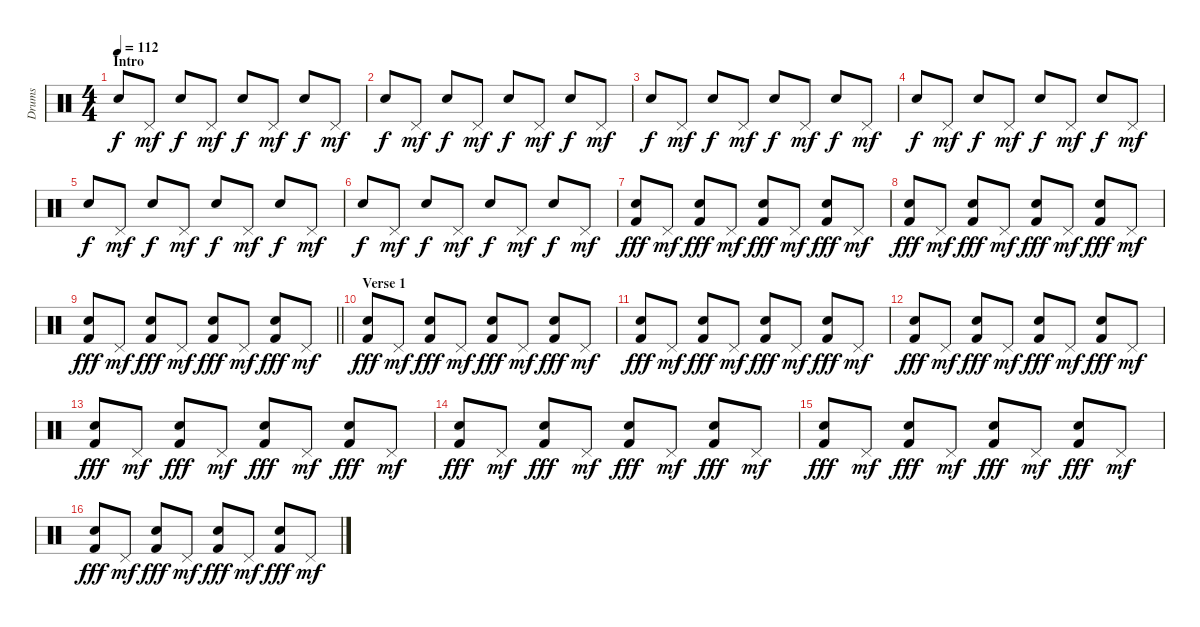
\track ("Drums" "Drums") {instrument percussion}
\staff {score}
\articulation defaults
\ts (4 4)
\section ("" "Intro")
\tempo 112
\clef neutral
\ks c "Electric Snare (hit)".8{dy f} "Pedal Hi-Hat (hit)".8{dy mf} "Electric Snare (hit)".8{dy f} "Pedal Hi-Hat (hit)".8{dy mf} "Electric Snare (hit)".8{dy f} "Pedal Hi-Hat (hit)".8{dy mf} "Electric Snare (hit)".8{dy f} "Pedal Hi-Hat (hit)".8{dy mf}
|
"Electric Snare (hit)".8{dy f} "Pedal Hi-Hat (hit)".8{dy mf} "Electric Snare (hit)".8{dy f} "Pedal Hi-Hat (hit)".8{dy mf} "Electric Snare (hit)".8{dy f} "Pedal Hi-Hat (hit)".8{dy mf} "Electric Snare (hit)".8{dy f} "Pedal Hi-Hat (hit)".8{dy mf} |
"Electric Snare (hit)".8{dy f} "Pedal Hi-Hat (hit)".8{dy mf} "Electric Snare (hit)".8{dy f} "Pedal Hi-Hat (hit)".8{dy mf} "Electric Snare (hit)".8{dy f} "Pedal Hi-Hat (hit)".8{dy mf} "Electric Snare (hit)".8{dy f} "Pedal Hi-Hat (hit)".8{dy mf} |
"Electric Snare (hit)".8{dy f} "Pedal Hi-Hat (hit)".8{dy mf} "Electric Snare (hit)".8{dy f} "Pedal Hi-Hat (hit)".8{dy mf} "Electric Snare (hit)".8{dy f} "Pedal Hi-Hat (hit)".8{dy mf} "Electric Snare (hit)".8{dy f} "Pedal Hi-Hat (hit)".8{dy mf} |
"Electric Snare (hit)".8{dy f} "Pedal Hi-Hat (hit)".8{dy mf} "Electric Snare (hit)".8{dy f} "Pedal Hi-Hat (hit)".8{dy mf} "Electric Snare (hit)".8{dy f} "Pedal Hi-Hat (hit)".8{dy mf} "Electric Snare (hit)".8{dy f} "Pedal Hi-Hat (hit)".8{dy mf} |
"Electric Snare (hit)".8{dy f} "Pedal Hi-Hat (hit)".8{dy mf} "Electric Snare (hit)".8{dy f} "Pedal Hi-Hat (hit)".8{dy mf} "Electric Snare (hit)".8{dy f} "Pedal Hi-Hat (hit)".8{dy mf} "Electric Snare (hit)".8{dy f} "Pedal Hi-Hat (hit)".8{dy mf} |
("Electric Snare (hit)" "Kick (hit) 2").8{dy fff} "Pedal Hi-Hat (hit)".8{dy mf} ("Electric Snare (hit)" "Kick (hit) 2").8{dy fff} "Pedal Hi-Hat (hit)".8{dy mf} ("Electric Snare (hit)" "Kick (hit) 2").8{dy fff} "Pedal Hi-Hat (hit)".8{dy mf} ("Electric Snare (hit)" "Kick (hit) 2").8{dy fff} "Pedal Hi-Hat (hit)".8{dy mf} |
("Electric Snare (hit)" "Kick (hit) 2").8{dy fff} "Pedal Hi-Hat (hit)".8{dy mf} ("Electric Snare (hit)" "Kick (hit) 2").8{dy fff} "Pedal Hi-Hat (hit)".8{dy mf} ("Electric Snare (hit)" "Kick (hit) 2").8{dy fff} "Pedal Hi-Hat (hit)".8{dy mf} ("Electric Snare (hit)" "Kick (hit) 2").8{dy fff} "Pedal Hi-Hat (hit)".8{dy mf} |
\barLineRight lightlight
("Electric Snare (hit)" "Kick (hit) 2").8{dy fff} "Pedal Hi-Hat (hit)".8{dy mf} ("Electric Snare (hit)" "Kick (hit) 2").8{dy fff} "Pedal Hi-Hat (hit)".8{dy mf} ("Electric Snare (hit)" "Kick (hit) 2").8{dy fff} "Pedal Hi-Hat (hit)".8{dy mf} ("Electric Snare (hit)" "Kick (hit) 2").8{dy fff} "Pedal Hi-Hat (hit)".8{dy mf} |
\section ("" "Verse 1")
("Electric Snare (hit)" "Kick (hit) 2").8{dy fff} "Pedal Hi-Hat (hit)".8{dy mf} ("Electric Snare (hit)" "Kick (hit) 2").8{dy fff} "Pedal Hi-Hat (hit)".8{dy mf} ("Electric Snare (hit)" "Kick (hit) 2").8{dy fff} "Pedal Hi-Hat (hit)".8{dy mf} ("Electric Snare (hit)" "Kick (hit) 2").8{dy fff} "Pedal Hi-Hat (hit)".8{dy mf} |
("Electric Snare (hit)" "Kick (hit) 2").8{dy fff} "Pedal Hi-Hat (hit)".8{dy mf} ("Electric Snare (hit)" "Kick (hit) 2").8{dy fff} "Pedal Hi-Hat (hit)".8{dy mf} ("Electric Snare (hit)" "Kick (hit) 2").8{dy fff} "Pedal Hi-Hat (hit)".8{dy mf} ("Electric Snare (hit)" "Kick (hit) 2").8{dy fff} "Pedal Hi-Hat (hit)".8{dy mf} |
("Electric Snare (hit)" "Kick (hit) 2").8{dy fff} "Pedal Hi-Hat (hit)".8{dy mf} ("Electric Snare (hit)" "Kick (hit) 2").8{dy fff} "Pedal Hi-Hat (hit)".8{dy mf} ("Electric Snare (hit)" "Kick (hit) 2").8{dy fff} "Pedal Hi-Hat (hit)".8{dy mf} ("Electric Snare (hit)" "Kick (hit) 2").8{dy fff} "Pedal Hi-Hat (hit)".8{dy mf} |
("Electric Snare (hit)" "Kick (hit) 2").8{dy fff} "Pedal Hi-Hat (hit)".8{dy mf} ("Electric Snare (hit)" "Kick (hit) 2").8{dy fff} "Pedal Hi-Hat (hit)".8{dy mf} ("Electric Snare (hit)" "Kick (hit) 2").8{dy fff} "Pedal Hi-Hat (hit)".8{dy mf} ("Electric Snare (hit)" "Kick (hit) 2").8{dy fff} "Pedal Hi-Hat (hit)".8{dy mf} |
("Electric Snare (hit)" "Kick (hit) 2").8{dy fff} "Pedal Hi-Hat (hit)".8{dy mf} ("Electric Snare (hit)" "Kick (hit) 2").8{dy fff} "Pedal Hi-Hat (hit)".8{dy mf} ("Electric Snare (hit)" "Kick (hit) 2").8{dy fff} "Pedal Hi-Hat (hit)".8{dy mf} ("Electric Snare (hit)" "Kick (hit) 2").8{dy fff} "Pedal Hi-Hat (hit)".8{dy mf} |
("Electric Snare (hit)" "Kick (hit) 2").8{dy fff} "Pedal Hi-Hat (hit)".8{dy mf} ("Electric Snare (hit)" "Kick (hit) 2").8{dy fff} "Pedal Hi-Hat (hit)".8{dy mf} ("Electric Snare (hit)" "Kick (hit) 2").8{dy fff} "Pedal Hi-Hat (hit)".8{dy mf} ("Electric Snare (hit)" "Kick (hit) 2").8{dy fff} "Pedal Hi-Hat (hit)".8{dy mf} |
("Electric Snare (hit)" "Kick (hit) 2").8{dy fff} "Pedal Hi-Hat (hit)".8{dy mf} ("Electric Snare (hit)" "Kick (hit) 2").8{dy fff} "Pedal Hi-Hat (hit)".8{dy mf} ("Electric Snare (hit)" "Kick (hit) 2").8{dy fff} "Pedal Hi-Hat (hit)".8{dy mf} ("Electric Snare (hit)" "Kick (hit) 2").8{dy fff} "Pedal Hi-Hat (hit)".8{dy mf}
